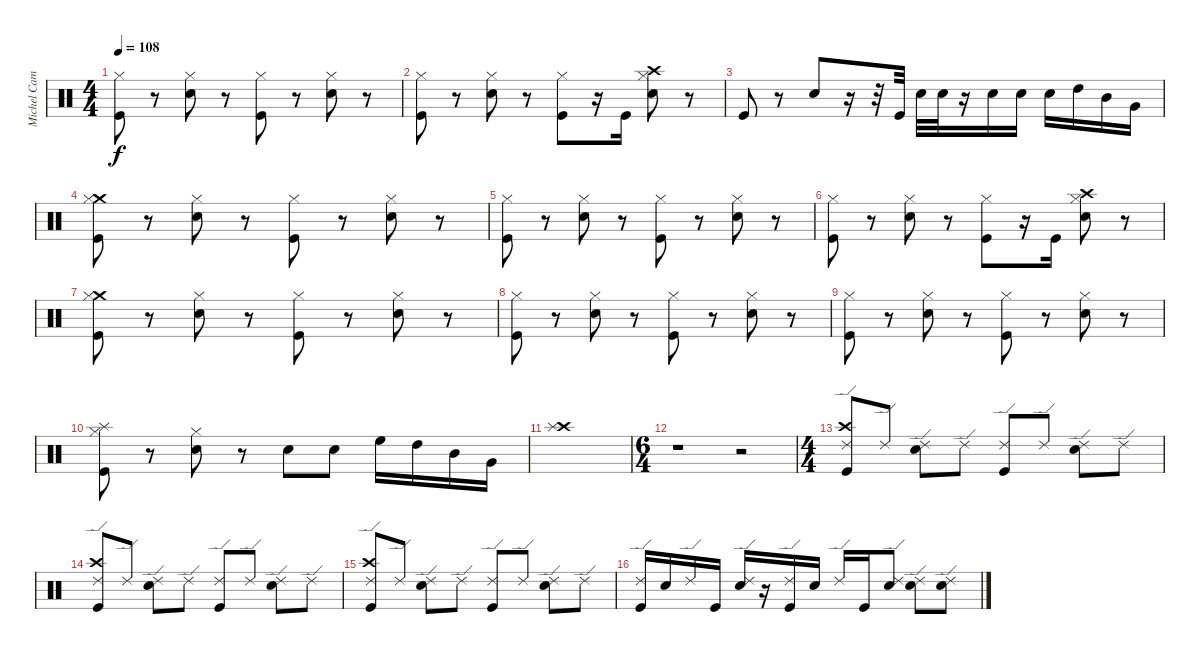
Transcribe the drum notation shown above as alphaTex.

\track ("Michel Camiade" "Michel Cam") {instrument percussion}
\staff {score}
\articulation defaults
\ts (4 4)
\tempo 108
\clef neutral
\ks c
("Hi-Hat (closed)" "Kick (hit)").8{dy f} r.8 ("Hi-Hat (closed)" "Snare (hit) 2").8 r.8 ("Hi-Hat (closed)" "Kick (hit)").8 r.8 ("Hi-Hat (closed)" "Snare (hit) 2").8 r.8 |
("Hi-Hat (closed)" "Kick (hit)").8 r.8 ("Hi-Hat (closed)" "Snare (hit) 2").8 r.8 ("Hi-Hat (closed)" "Kick (hit)").8 r.16 "Kick (hit)".16 ("Crash high (hit)" "Hi-Hat (closed)" "Snare (hit) 2").8 r.8 |
"Kick (hit)".8 r.8 "Snare (hit) 2".8 r.16 r.32 "Kick (hit)".32 "Snare (hit) 2".32 "Snare (hit) 2".32 r.16 "Snare (hit) 2".16 "Snare (hit) 2".16 "Snare (hit) 2".16 "High Tom (hit)".16 "Mid Tom (hit)".16 "Very Low Tom (hit)".16 |
("Crash medium (hit)" "Hi-Hat (closed)" "Kick (hit)").8 r.8 ("Hi-Hat (closed)" "Snare (hit) 2").8 r.8 ("Hi-Hat (closed)" "Kick (hit)").8 r.8 ("Hi-Hat (closed)" "Snare (hit) 2").8 r.8 |
("Hi-Hat (closed)" "Kick (hit)").8 r.8 ("Hi-Hat (closed)" "Snare (hit) 2").8 r.8 ("Hi-Hat (closed)" "Kick (hit)").8 r.8 ("Hi-Hat (closed)" "Snare (hit) 2").8 r.8 |
("Hi-Hat (closed)" "Kick (hit)").8 r.8 ("Hi-Hat (closed)" "Snare (hit) 2").8 r.8 ("Hi-Hat (closed)" "Kick (hit)").8 r.16 "Kick (hit)".16 ("Crash high (hit)" "Hi-Hat (closed)" "Snare (hit) 2").8 r.8 |
("Crash medium (hit)" "Hi-Hat (closed)" "Kick (hit)").8 r.8 ("Hi-Hat (closed)" "Snare (hit) 2").8 r.8 ("Hi-Hat (closed)" "Kick (hit)").8 r.8 ("Hi-Hat (closed)" "Snare (hit) 2").8 r.8 |
("Hi-Hat (closed)" "Kick (hit)").8 r.8 ("Hi-Hat (closed)" "Snare (hit) 2").8 r.8 ("Hi-Hat (closed)" "Kick (hit)").8 r.8 ("Hi-Hat (closed)" "Snare (hit) 2").8 r.8 |
("Hi-Hat (closed)" "Kick (hit)").8 r.8 ("Hi-Hat (closed)" "Snare (hit) 2").8 r.8 ("Hi-Hat (closed)" "Kick (hit)").8 r.8 ("Hi-Hat (closed)" "Snare (hit) 2").8 r.8 |
("Splash (hit)" "Hi-Hat (closed)" "Kick (hit)").8 r.8 ("Hi-Hat (closed)" "Snare (hit) 2").8 r.8 "Snare (hit) 2".8 "Snare (hit) 2".8 "High Floor Tom (hit)".16 "High Tom (hit)".16 "Mid Tom (hit)".16 "Very Low Tom (hit)".16 |
("Crash high (hit)" "Splash (hit)").1 |
\ts (6 4)
r.1 r.2 |
\ts (4 4)
("Crash high (hit)" "Ride (edge) 2" "Kick (hit)").8 "Ride (edge) 2".8 ("Ride (edge) 2" "Snare (hit) 2").8 "Ride (edge) 2".8 ("Ride (edge) 2" "Kick (hit)").8 "Ride (edge) 2".8 ("Ride (edge) 2" "Snare (hit) 2").8 "Ride (edge) 2".8 |
("Crash high (hit)" "Ride (edge) 2" "Kick (hit)").8 "Ride (edge) 2".8 ("Ride (edge) 2" "Snare (hit) 2").8 "Ride (edge) 2".8 ("Ride (edge) 2" "Kick (hit)").8 "Ride (edge) 2".8 ("Ride (edge) 2" "Snare (hit) 2").8 "Ride (edge) 2".8 |
("Crash high (hit)" "Ride (edge) 2" "Kick (hit)").8 "Ride (edge) 2".8 ("Ride (edge) 2" "Snare (hit) 2").8 "Ride (edge) 2".8 ("Ride (edge) 2" "Kick (hit)").8 "Ride (edge) 2".8 ("Ride (edge) 2" "Snare (hit) 2").8 "Ride (edge) 2".8 |
("Ride (edge) 2" "Kick (hit)").16 "Snare (hit) 2".16 "Ride (edge) 2".16 "Kick (hit)".16 ("Ride (edge) 2" "Snare (hit) 2").16 r.16 ("Ride (edge) 2" "Kick (hit)").16 "Snare (hit) 2".16 "Ride (edge) 2".16 "Kick (hit)".16 ("Ride (edge) 2" "Snare (hit) 2").8 ("Ride (edge) 2" "Snare (hit) 2").8 ("Ride (edge) 2" "Snare (hit) 2").8
